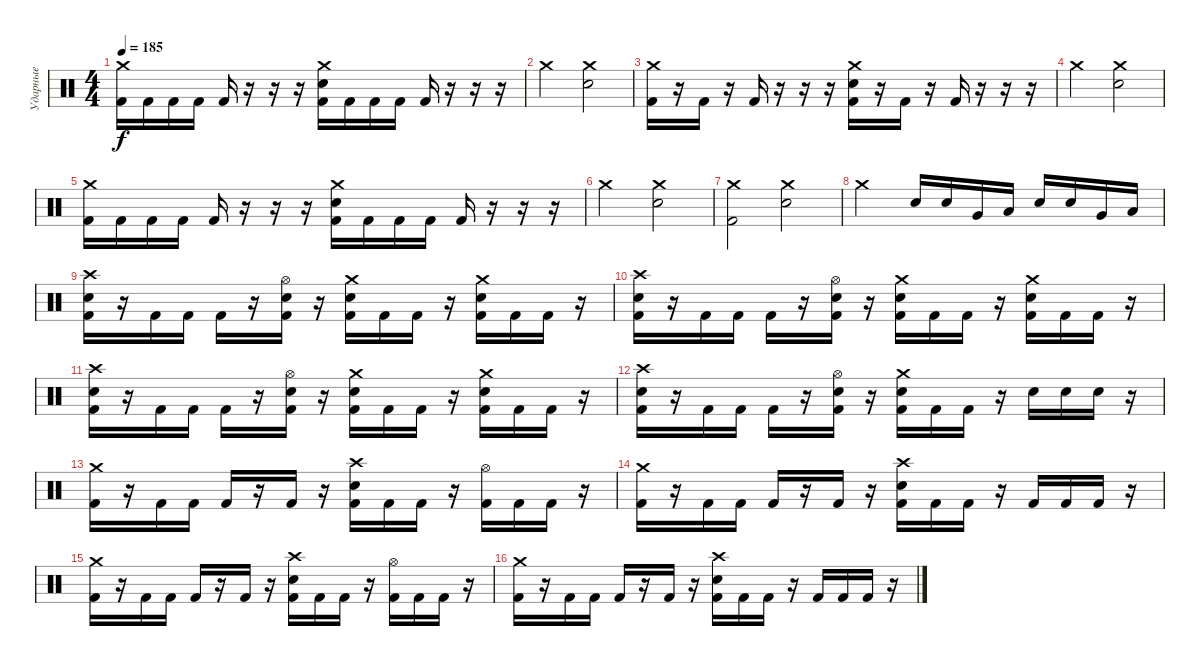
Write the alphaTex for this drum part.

\track ("Ударные" "Ударные") {instrument percussion}
\staff {score}
\articulation defaults
\ts (4 4)
\tempo 185
\clef neutral
\ks c
("Crash medium (hit)" "Kick (hit) 2").16{dy f} "Kick (hit) 2".16 "Kick (hit) 2".16 "Kick (hit) 2".16 "Kick (hit) 2".16 r.16 r.16 r.16 ("Crash medium (hit)" "Electric Snare (hit)" "Kick (hit) 2").16 "Kick (hit) 2".16 "Kick (hit) 2".16 "Kick (hit) 2".16 "Kick (hit) 2".16 r.16 r.16 r.16 |
"Crash medium (hit)".2 ("Crash medium (hit)" "Electric Snare (hit)").2 |
("Crash medium (hit)" "Kick (hit) 2").16 r.16 "Kick (hit) 2".16 r.16 "Kick (hit) 2".16 r.16 r.16 r.16 ("Crash medium (hit)" "Electric Snare (hit)" "Kick (hit) 2").16 r.16 "Kick (hit) 2".16 r.16 "Kick (hit) 2".16 r.16 r.16 r.16 |
"Crash medium (hit)".2 ("Crash medium (hit)" "Electric Snare (hit)").2 |
("Crash medium (hit)" "Kick (hit) 2").16 "Kick (hit) 2".16 "Kick (hit) 2".16 "Kick (hit) 2".16 "Kick (hit) 2".16 r.16 r.16 r.16 ("Crash medium (hit)" "Electric Snare (hit)" "Kick (hit) 2").16 "Kick (hit) 2".16 "Kick (hit) 2".16 "Kick (hit) 2".16 "Kick (hit) 2".16 r.16 r.16 r.16 |
"Crash medium (hit)".2 ("Crash medium (hit)" "Electric Snare (hit)").2 |
("Crash medium (hit)" "Kick (hit) 2").2 ("Crash medium (hit)" "Electric Snare (hit)").2 |
"Crash medium (hit)".2 "Electric Snare (hit)".16 "Electric Snare (hit)".16 "Very Low Tom (hit)".16 "Low Floor Tom (hit)".16 "Electric Snare (hit)".16 "Electric Snare (hit)".16 "Very Low Tom (hit)".16 "Low Floor Tom (hit)".16 |
("Crash high (hit)" "Electric Snare (hit)" "Kick (hit) 2").16 r.16 "Kick (hit) 2".16 "Kick (hit) 2".16 "Kick (hit) 2".16 r.16 ("Hi-Hat (open)" "Electric Snare (hit)" "Kick (hit) 2").16 r.16 ("Crash medium (hit)" "Electric Snare (hit)" "Kick (hit) 2").16 "Kick (hit) 2".16 "Kick (hit) 2".16 r.16 ("Crash medium (hit)" "Electric Snare (hit)" "Kick (hit) 2").16 "Kick (hit) 2".16 "Kick (hit) 2".16 r.16 |
("Crash high (hit)" "Electric Snare (hit)" "Kick (hit) 2").16 r.16 "Kick (hit) 2".16 "Kick (hit) 2".16 "Kick (hit) 2".16 r.16 ("Hi-Hat (open)" "Electric Snare (hit)" "Kick (hit) 2").16 r.16 ("Crash medium (hit)" "Electric Snare (hit)" "Kick (hit) 2").16 "Kick (hit) 2".16 "Kick (hit) 2".16 r.16 ("Crash medium (hit)" "Electric Snare (hit)" "Kick (hit) 2").16 "Kick (hit) 2".16 "Kick (hit) 2".16 r.16 |
("Crash high (hit)" "Electric Snare (hit)" "Kick (hit) 2").16 r.16 "Kick (hit) 2".16 "Kick (hit) 2".16 "Kick (hit) 2".16 r.16 ("Hi-Hat (open)" "Electric Snare (hit)" "Kick (hit) 2").16 r.16 ("Crash medium (hit)" "Electric Snare (hit)" "Kick (hit) 2").16 "Kick (hit) 2".16 "Kick (hit) 2".16 r.16 ("Crash medium (hit)" "Electric Snare (hit)" "Kick (hit) 2").16 "Kick (hit) 2".16 "Kick (hit) 2".16 r.16 |
("Crash high (hit)" "Electric Snare (hit)" "Kick (hit) 2").16 r.16 "Kick (hit) 2".16 "Kick (hit) 2".16 "Kick (hit) 2".16 r.16 ("Hi-Hat (open)" "Electric Snare (hit)" "Kick (hit) 2").16 r.16 ("Crash medium (hit)" "Electric Snare (hit)" "Kick (hit) 2").16 "Kick (hit) 2".16 "Kick (hit) 2".16 r.16 "Electric Snare (hit)".16 "Electric Snare (hit)".16 "Electric Snare (hit)".16 r.16 |
("Crash medium (hit)" "Kick (hit) 2").16 r.16 "Kick (hit) 2".16 "Kick (hit) 2".16 "Kick (hit) 2".16 r.16 "Kick (hit) 2".16 r.16 ("Crash high (hit)" "Electric Snare (hit)" "Kick (hit) 2").16 "Kick (hit) 2".16 "Kick (hit) 2".16 r.16 ("Hi-Hat (open)" "Kick (hit) 2").16 "Kick (hit) 2".16 "Kick (hit) 2".16 r.16 |
("Crash medium (hit)" "Kick (hit) 2").16 r.16 "Kick (hit) 2".16 "Kick (hit) 2".16 "Kick (hit) 2".16 r.16 "Kick (hit) 2".16 r.16 ("Crash high (hit)" "Electric Snare (hit)" "Kick (hit) 2").16 "Kick (hit) 2".16 "Kick (hit) 2".16 r.16 "Kick (hit) 2".16 "Kick (hit) 2".16 "Kick (hit) 2".16 r.16 |
("Crash medium (hit)" "Kick (hit) 2").16 r.16 "Kick (hit) 2".16 "Kick (hit) 2".16 "Kick (hit) 2".16 r.16 "Kick (hit) 2".16 r.16 ("Crash high (hit)" "Electric Snare (hit)" "Kick (hit) 2").16 "Kick (hit) 2".16 "Kick (hit) 2".16 r.16 ("Hi-Hat (open)" "Kick (hit) 2").16 "Kick (hit) 2".16 "Kick (hit) 2".16 r.16 |
("Crash medium (hit)" "Kick (hit) 2").16 r.16 "Kick (hit) 2".16 "Kick (hit) 2".16 "Kick (hit) 2".16 r.16 "Kick (hit) 2".16 r.16 ("Crash high (hit)" "Electric Snare (hit)" "Kick (hit) 2").16 "Kick (hit) 2".16 "Kick (hit) 2".16 r.16 "Kick (hit) 2".16 "Kick (hit) 2".16 "Kick (hit) 2".16 r.16
